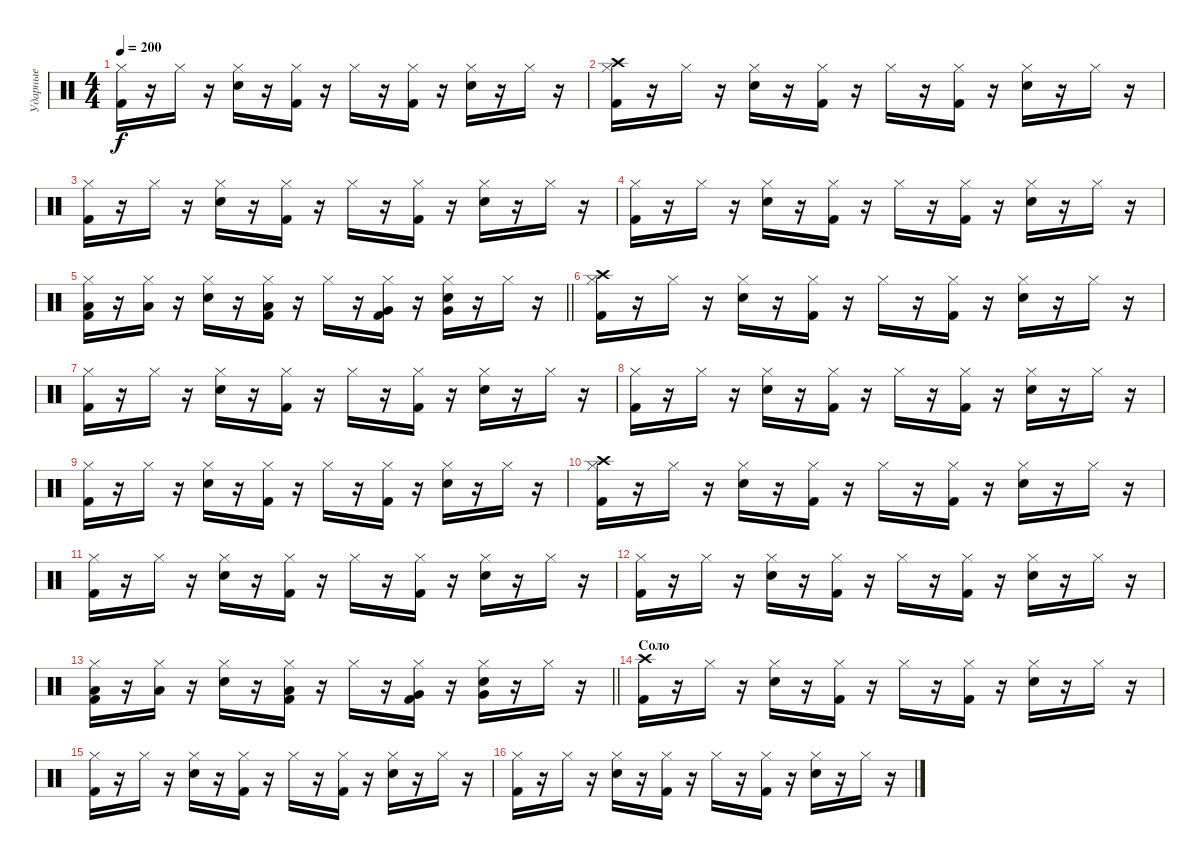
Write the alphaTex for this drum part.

\track ("Ударные" "Ударные") {instrument percussion}
\staff {score}
\articulation defaults
\ts (4 4)
\tempo 200
\clef neutral
\ks c
("Kick (hit) 2" "Hi-Hat (closed)").16{dy f} r.16 "Hi-Hat (closed)".16 r.16 ("Snare (hit) 2" "Hi-Hat (closed)").16 r.16 ("Kick (hit) 2" "Hi-Hat (closed)").16 r.16 "Hi-Hat (closed)".16 r.16 ("Kick (hit) 2" "Hi-Hat (closed)").16 r.16 ("Snare (hit) 2" "Hi-Hat (closed)").16 r.16 "Hi-Hat (closed)".16 r.16 |
("Kick (hit) 2" "Crash high (hit)" "Hi-Hat (closed)").16 r.16 "Hi-Hat (closed)".16 r.16 ("Snare (hit) 2" "Hi-Hat (closed)").16 r.16 ("Kick (hit) 2" "Hi-Hat (closed)").16 r.16 "Hi-Hat (closed)".16 r.16 ("Kick (hit) 2" "Hi-Hat (closed)").16 r.16 ("Snare (hit) 2" "Hi-Hat (closed)").16 r.16 "Hi-Hat (closed)".16 r.16 |
("Kick (hit) 2" "Hi-Hat (closed)").16 r.16 "Hi-Hat (closed)".16 r.16 ("Snare (hit) 2" "Hi-Hat (closed)").16 r.16 ("Kick (hit) 2" "Hi-Hat (closed)").16 r.16 "Hi-Hat (closed)".16 r.16 ("Kick (hit) 2" "Hi-Hat (closed)").16 r.16 ("Snare (hit) 2" "Hi-Hat (closed)").16 r.16 "Hi-Hat (closed)".16 r.16 |
("Kick (hit) 2" "Hi-Hat (closed)").16 r.16 "Hi-Hat (closed)".16 r.16 ("Snare (hit) 2" "Hi-Hat (closed)").16 r.16 ("Kick (hit) 2" "Hi-Hat (closed)").16 r.16 "Hi-Hat (closed)".16 r.16 ("Kick (hit) 2" "Hi-Hat (closed)").16 r.16 ("Snare (hit) 2" "Hi-Hat (closed)").16 r.16 "Hi-Hat (closed)".16 r.16 |
\barLineRight lightlight
("Kick (hit) 2" "Low Floor Tom (hit)" "Hi-Hat (closed)").16 r.16 ("Low Floor Tom (hit)" "Hi-Hat (closed)").16 r.16 ("Snare (hit) 2" "Hi-Hat (closed)").16 r.16 ("Kick (hit) 2" "Low Floor Tom (hit)" "Hi-Hat (closed)").16 r.16 "Hi-Hat (closed)".16 r.16 ("Kick (hit) 2" "Very Low Tom (hit)" "Hi-Hat (closed)").16 r.16 ("Snare (hit) 2" "Very Low Tom (hit)" "Hi-Hat (closed)").16 r.16 "Hi-Hat (closed)".16 r.16 |
\section ("" "")
("Kick (hit) 2" "Crash high (hit)" "Hi-Hat (closed)").16 r.16 "Hi-Hat (closed)".16 r.16 ("Snare (hit) 2" "Hi-Hat (closed)").16 r.16 ("Kick (hit) 2" "Hi-Hat (closed)").16 r.16 "Hi-Hat (closed)".16 r.16 ("Kick (hit) 2" "Hi-Hat (closed)").16 r.16 ("Snare (hit) 2" "Hi-Hat (closed)").16 r.16 "Hi-Hat (closed)".16 r.16 |
("Kick (hit) 2" "Hi-Hat (closed)").16 r.16 "Hi-Hat (closed)".16 r.16 ("Snare (hit) 2" "Hi-Hat (closed)").16 r.16 ("Kick (hit) 2" "Hi-Hat (closed)").16 r.16 "Hi-Hat (closed)".16 r.16 ("Kick (hit) 2" "Hi-Hat (closed)").16 r.16 ("Snare (hit) 2" "Hi-Hat (closed)").16 r.16 "Hi-Hat (closed)".16 r.16 |
("Kick (hit) 2" "Hi-Hat (closed)").16 r.16 "Hi-Hat (closed)".16 r.16 ("Snare (hit) 2" "Hi-Hat (closed)").16 r.16 ("Kick (hit) 2" "Hi-Hat (closed)").16 r.16 "Hi-Hat (closed)".16 r.16 ("Kick (hit) 2" "Hi-Hat (closed)").16 r.16 ("Snare (hit) 2" "Hi-Hat (closed)").16 r.16 "Hi-Hat (closed)".16 r.16 |
("Kick (hit) 2" "Hi-Hat (closed)").16 r.16 "Hi-Hat (closed)".16 r.16 ("Snare (hit) 2" "Hi-Hat (closed)").16 r.16 ("Kick (hit) 2" "Hi-Hat (closed)").16 r.16 "Hi-Hat (closed)".16 r.16 ("Kick (hit) 2" "Hi-Hat (closed)").16 r.16 ("Snare (hit) 2" "Hi-Hat (closed)").16 r.16 "Hi-Hat (closed)".16 r.16 |
("Kick (hit) 2" "Crash high (hit)" "Hi-Hat (closed)").16 r.16 "Hi-Hat (closed)".16 r.16 ("Snare (hit) 2" "Hi-Hat (closed)").16 r.16 ("Kick (hit) 2" "Hi-Hat (closed)").16 r.16 "Hi-Hat (closed)".16 r.16 ("Kick (hit) 2" "Hi-Hat (closed)").16 r.16 ("Snare (hit) 2" "Hi-Hat (closed)").16 r.16 "Hi-Hat (closed)".16 r.16 |
("Kick (hit) 2" "Hi-Hat (closed)").16 r.16 "Hi-Hat (closed)".16 r.16 ("Snare (hit) 2" "Hi-Hat (closed)").16 r.16 ("Kick (hit) 2" "Hi-Hat (closed)").16 r.16 "Hi-Hat (closed)".16 r.16 ("Kick (hit) 2" "Hi-Hat (closed)").16 r.16 ("Snare (hit) 2" "Hi-Hat (closed)").16 r.16 "Hi-Hat (closed)".16 r.16 |
("Kick (hit) 2" "Hi-Hat (closed)").16 r.16 "Hi-Hat (closed)".16 r.16 ("Snare (hit) 2" "Hi-Hat (closed)").16 r.16 ("Kick (hit) 2" "Hi-Hat (closed)").16 r.16 "Hi-Hat (closed)".16 r.16 ("Kick (hit) 2" "Hi-Hat (closed)").16 r.16 ("Snare (hit) 2" "Hi-Hat (closed)").16 r.16 "Hi-Hat (closed)".16 r.16 |
\barLineRight lightlight
("Kick (hit) 2" "Low Floor Tom (hit)" "Hi-Hat (closed)").16 r.16 ("Low Floor Tom (hit)" "Hi-Hat (closed)").16 r.16 ("Snare (hit) 2" "Hi-Hat (closed)").16 r.16 ("Kick (hit) 2" "Low Floor Tom (hit)" "Hi-Hat (closed)").16 r.16 "Hi-Hat (closed)".16 r.16 ("Kick (hit) 2" "Very Low Tom (hit)" "Hi-Hat (closed)").16 r.16 ("Snare (hit) 2" "Very Low Tom (hit)" "Hi-Hat (closed)").16 r.16 "Hi-Hat (closed)".16 r.16 |
\section ("" "Соло")
("Kick (hit) 2" "Crash high (hit)").16 r.16 "Hi-Hat (closed)".16 r.16 ("Snare (hit) 2" "Hi-Hat (closed)").16 r.16 ("Kick (hit) 2" "Hi-Hat (closed)").16 r.16 "Hi-Hat (closed)".16 r.16 ("Kick (hit) 2" "Hi-Hat (closed)").16 r.16 ("Snare (hit) 2" "Hi-Hat (closed)").16 r.16 "Hi-Hat (closed)".16 r.16 |
("Kick (hit) 2" "Hi-Hat (closed)").16 r.16 "Hi-Hat (closed)".16 r.16 ("Snare (hit) 2" "Hi-Hat (closed)").16 r.16 ("Kick (hit) 2" "Hi-Hat (closed)").16 r.16 "Hi-Hat (closed)".16 r.16 ("Kick (hit) 2" "Hi-Hat (closed)").16 r.16 ("Snare (hit) 2" "Hi-Hat (closed)").16 r.16 "Hi-Hat (closed)".16 r.16 |
("Kick (hit) 2" "Hi-Hat (closed)").16 r.16 "Hi-Hat (closed)".16 r.16 ("Snare (hit) 2" "Hi-Hat (closed)").16 r.16 ("Kick (hit) 2" "Hi-Hat (closed)").16 r.16 "Hi-Hat (closed)".16 r.16 ("Kick (hit) 2" "Hi-Hat (closed)").16 r.16 ("Snare (hit) 2" "Hi-Hat (closed)").16 r.16 "Hi-Hat (closed)".16 r.16
